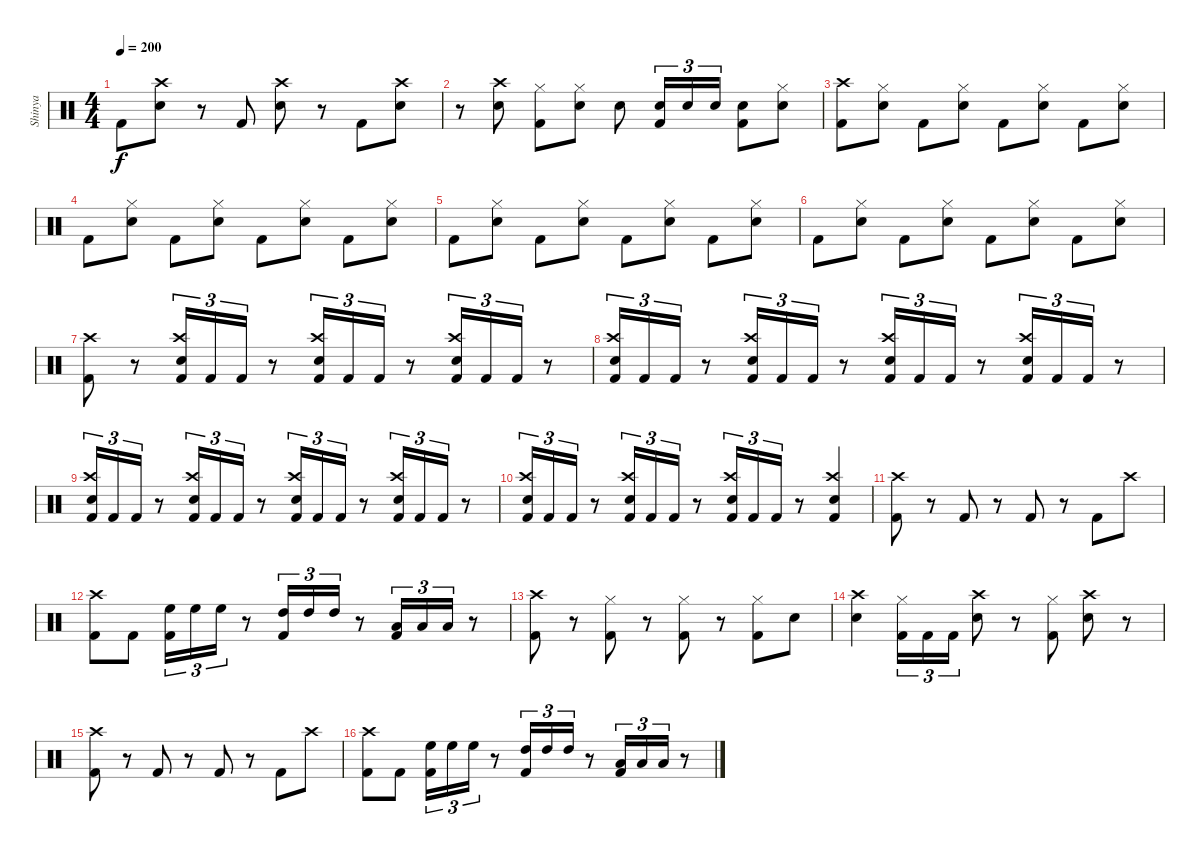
\track ("Shinya" "Shinya") {instrument percussion}
\staff {score}
\articulation defaults
\ts (4 4)
\tempo 200
\clef neutral
\ks c "Kick (hit) 2".8{dy f}
("Crash high (hit)" "Electric Snare (hit)").8 r.8 "Kick (hit) 2".8 ("Crash high (hit)" "Electric Snare (hit)").8 r.8 "Kick (hit) 2".8 ("Crash high (hit)" "Electric Snare (hit)").8 |
r.8 ("Crash high (hit)" "Electric Snare (hit)").8 ("Hi-Hat (closed)" "Kick (hit) 2").8 ("Hi-Hat (closed)" "Electric Snare (hit)").8 "Electric Snare (hit)".8 ("Electric Snare (hit)" "Kick (hit) 2").16{tu (3 2)} "Electric Snare (hit)".16{tu (3 2)} "Electric Snare (hit)".16{tu (3 2)} ("Electric Snare (hit)" "Kick (hit) 2").8 ("Hi-Hat (closed)" "Electric Snare (hit)").8 |
("Crash high (hit)" "Kick (hit) 2").8 ("Hi-Hat (closed)" "Electric Snare (hit)").8 "Kick (hit) 2".8 ("Hi-Hat (closed)" "Electric Snare (hit)").8 "Kick (hit) 2".8 ("Hi-Hat (closed)" "Electric Snare (hit)").8 "Kick (hit) 2".8 ("Hi-Hat (closed)" "Electric Snare (hit)").8 |
"Kick (hit) 2".8 ("Hi-Hat (closed)" "Electric Snare (hit)").8 "Kick (hit) 2".8 ("Hi-Hat (closed)" "Electric Snare (hit)").8 "Kick (hit) 2".8 ("Hi-Hat (closed)" "Electric Snare (hit)").8 "Kick (hit) 2".8 ("Hi-Hat (closed)" "Electric Snare (hit)").8 |
"Kick (hit) 2".8 ("Hi-Hat (closed)" "Electric Snare (hit)").8 "Kick (hit) 2".8 ("Hi-Hat (closed)" "Electric Snare (hit)").8 "Kick (hit) 2".8 ("Hi-Hat (closed)" "Electric Snare (hit)").8 "Kick (hit) 2".8 ("Hi-Hat (closed)" "Electric Snare (hit)").8 |
"Kick (hit) 2".8 ("Hi-Hat (closed)" "Electric Snare (hit)").8 "Kick (hit) 2".8 ("Hi-Hat (closed)" "Electric Snare (hit)").8 "Kick (hit) 2".8 ("Hi-Hat (closed)" "Electric Snare (hit)").8 "Kick (hit) 2".8 ("Hi-Hat (closed)" "Electric Snare (hit)").8 |
("Crash high (hit)" "Kick (hit) 2").8 r.8 ("Crash high (hit)" "Electric Snare (hit)" "Kick (hit) 2").16{tu (3 2)} "Kick (hit) 2".16{tu (3 2)} "Kick (hit) 2".16{tu (3 2)} r.8 ("Crash high (hit)" "Electric Snare (hit)" "Kick (hit) 2").16{tu (3 2)} "Kick (hit) 2".16{tu (3 2)} "Kick (hit) 2".16{tu (3 2)} r.8 ("Crash high (hit)" "Electric Snare (hit)" "Kick (hit) 2").16{tu (3 2)} "Kick (hit) 2".16{tu (3 2)} "Kick (hit) 2".16{tu (3 2)} r.8 |
("Crash high (hit)" "Electric Snare (hit)" "Kick (hit) 2").16{tu (3 2)} "Kick (hit) 2".16{tu (3 2)} "Kick (hit) 2".16{tu (3 2)} r.8 ("Crash high (hit)" "Electric Snare (hit)" "Kick (hit) 2").16{tu (3 2)} "Kick (hit) 2".16{tu (3 2)} "Kick (hit) 2".16{tu (3 2)} r.8 ("Crash high (hit)" "Electric Snare (hit)" "Kick (hit) 2").16{tu (3 2)} "Kick (hit) 2".16{tu (3 2)} "Kick (hit) 2".16{tu (3 2)} r.8 ("Crash high (hit)" "Electric Snare (hit)" "Kick (hit) 2").16{tu (3 2)} "Kick (hit) 2".16{tu (3 2)} "Kick (hit) 2".16{tu (3 2)} r.8 |
("Crash high (hit)" "Electric Snare (hit)" "Kick (hit) 2").16{tu (3 2)} "Kick (hit) 2".16{tu (3 2)} "Kick (hit) 2".16{tu (3 2)} r.8 ("Crash high (hit)" "Electric Snare (hit)" "Kick (hit) 2").16{tu (3 2)} "Kick (hit) 2".16{tu (3 2)} "Kick (hit) 2".16{tu (3 2)} r.8 ("Crash high (hit)" "Electric Snare (hit)" "Kick (hit) 2").16{tu (3 2)} "Kick (hit) 2".16{tu (3 2)} "Kick (hit) 2".16{tu (3 2)} r.8 ("Crash high (hit)" "Electric Snare (hit)" "Kick (hit) 2").16{tu (3 2)} "Kick (hit) 2".16{tu (3 2)} "Kick (hit) 2".16{tu (3 2)} r.8 |
("Crash high (hit)" "Electric Snare (hit)" "Kick (hit) 2").16{tu (3 2)} "Kick (hit) 2".16{tu (3 2)} "Kick (hit) 2".16{tu (3 2)} r.8 ("Crash high (hit)" "Electric Snare (hit)" "Kick (hit) 2").16{tu (3 2)} "Kick (hit) 2".16{tu (3 2)} "Kick (hit) 2".16{tu (3 2)} r.8 ("Crash high (hit)" "Electric Snare (hit)" "Kick (hit) 2").16{tu (3 2)} "Kick (hit) 2".16{tu (3 2)} "Kick (hit) 2".16{tu (3 2)} r.8 ("Crash high (hit)" "Electric Snare (hit)" "Kick (hit) 2").4 |
("Crash high (hit)" "Kick (hit) 2").8 r.8 "Kick (hit) 2".8 r.8 "Kick (hit) 2".8 r.8 "Kick (hit) 2".8 "Crash high (hit)".8 |
("Crash high (hit)" "Kick (hit) 2").8 "Kick (hit) 2".8 ("High Floor Tom (hit)" "Kick (hit) 2").16{tu (3 2)} "High Floor Tom (hit)".16{tu (3 2)} "High Floor Tom (hit)".16{tu (3 2)} r.8 ("High Tom (hit)" "Kick (hit) 2").16{tu (3 2)} "High Tom (hit)".16{tu (3 2)} "High Tom (hit)".16{tu (3 2)} r.8 ("Low Tom (hit)" "Kick (hit) 2").16{tu (3 2)} "Low Tom (hit)".16{tu (3 2)} "Low Tom (hit)".16{tu (3 2)} r.8 |
("Crash high (hit)" "Kick (hit) 2").8 r.8 ("Hi-Hat (closed)" "Kick (hit) 2").8 r.8 ("Hi-Hat (closed)" "Kick (hit) 2").8 r.8 ("Hi-Hat (closed)" "Kick (hit) 2").8 "Electric Snare (hit)".8 |
("Crash high (hit)" "Electric Snare (hit)").4 ("Hi-Hat (closed)" "Kick (hit) 2").16{tu (3 2)} "Kick (hit) 2".16{tu (3 2)} "Kick (hit) 2".16{tu (3 2)} ("Crash high (hit)" "Electric Snare (hit)").8 r.8 ("Hi-Hat (closed)" "Kick (hit) 2").8 ("Crash high (hit)" "Electric Snare (hit)").8 r.8 |
("Crash high (hit)" "Kick (hit) 2").8 r.8 "Kick (hit) 2".8 r.8 "Kick (hit) 2".8 r.8 "Kick (hit) 2".8 "Crash high (hit)".8 |
("Crash high (hit)" "Kick (hit) 2").8 "Kick (hit) 2".8 ("High Floor Tom (hit)" "Kick (hit) 2").16{tu (3 2)} "High Floor Tom (hit)".16{tu (3 2)} "High Floor Tom (hit)".16{tu (3 2)} r.8 ("High Tom (hit)" "Kick (hit) 2").16{tu (3 2)} "High Tom (hit)".16{tu (3 2)} "High Tom (hit)".16{tu (3 2)} r.8 ("Low Tom (hit)" "Kick (hit) 2").16{tu (3 2)} "Low Tom (hit)".16{tu (3 2)} "Low Tom (hit)".16{tu (3 2)} r.8
